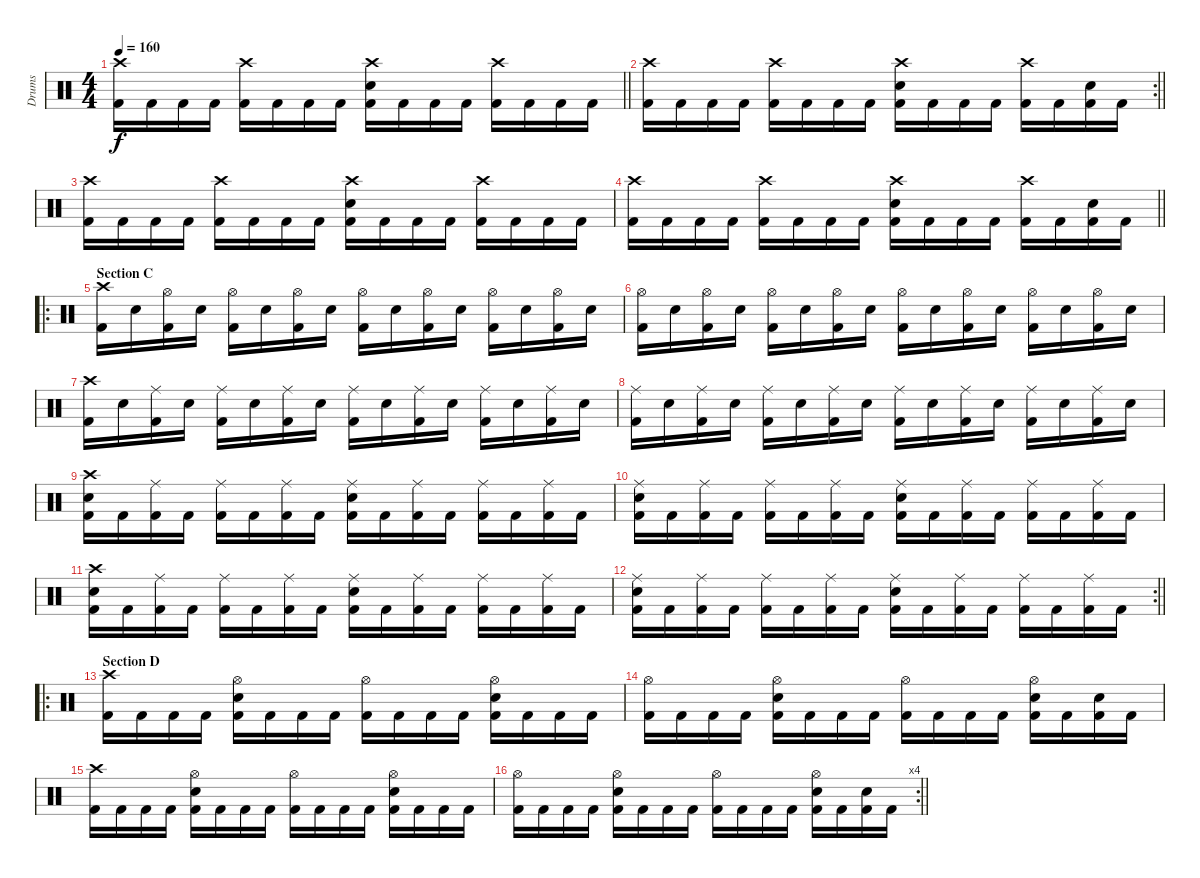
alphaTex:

\track ("Drums" "Drums") {instrument percussion}
\staff {score}
\articulation defaults
\ts (4 4)
\tempo 160
\clef neutral
\barLineRight lightlight
\ks c
("Crash high (hit)" "Kick (hit) 2").16{dy f} "Kick (hit) 2".16 "Kick (hit) 2".16 "Kick (hit) 2".16 ("Crash high (hit)" "Kick (hit) 2").16 "Kick (hit) 2".16 "Kick (hit) 2".16 "Kick (hit) 2".16 ("Crash high (hit)" "Snare (hit) 2" "Kick (hit) 2").16 "Kick (hit) 2".16 "Kick (hit) 2".16 "Kick (hit) 2".16 ("Crash high (hit)" "Kick (hit) 2").16 "Kick (hit) 2".16 "Kick (hit) 2".16 "Kick (hit) 2".16 |
\rc 2
\barLineRight lightlight
("Crash high (hit)" "Kick (hit) 2").16 "Kick (hit) 2".16 "Kick (hit) 2".16 "Kick (hit) 2".16 ("Crash high (hit)" "Kick (hit) 2").16 "Kick (hit) 2".16 "Kick (hit) 2".16 "Kick (hit) 2".16 ("Crash high (hit)" "Snare (hit) 2" "Kick (hit) 2").16 "Kick (hit) 2".16 "Kick (hit) 2".16 "Kick (hit) 2".16 ("Crash high (hit)" "Kick (hit) 2").16 "Kick (hit) 2".16 ("Snare (hit) 2" "Kick (hit) 2").16 "Kick (hit) 2".16 |
("Crash high (hit)" "Kick (hit) 2").16 "Kick (hit) 2".16 "Kick (hit) 2".16 "Kick (hit) 2".16 ("Crash high (hit)" "Kick (hit) 2").16 "Kick (hit) 2".16 "Kick (hit) 2".16 "Kick (hit) 2".16 ("Crash high (hit)" "Snare (hit) 2" "Kick (hit) 2").16 "Kick (hit) 2".16 "Kick (hit) 2".16 "Kick (hit) 2".16 ("Crash high (hit)" "Kick (hit) 2").16 "Kick (hit) 2".16 "Kick (hit) 2".16 "Kick (hit) 2".16 |
\barLineRight lightlight
("Crash high (hit)" "Kick (hit) 2").16 "Kick (hit) 2".16 "Kick (hit) 2".16 "Kick (hit) 2".16 ("Crash high (hit)" "Kick (hit) 2").16 "Kick (hit) 2".16 "Kick (hit) 2".16 "Kick (hit) 2".16 ("Crash high (hit)" "Snare (hit) 2" "Kick (hit) 2").16 "Kick (hit) 2".16 "Kick (hit) 2".16 "Kick (hit) 2".16 ("Crash high (hit)" "Kick (hit) 2").16 "Kick (hit) 2".16 ("Snare (hit) 2" "Kick (hit) 2").16 "Kick (hit) 2".16 |
\ro
\section ("" "Section C")
("Crash high (hit)" "Kick (hit) 2").16 "Snare (hit) 2".16 ("Hi-Hat (open)" "Kick (hit) 2").16 "Snare (hit) 2".16 ("Hi-Hat (open)" "Kick (hit) 2").16 "Snare (hit) 2".16 ("Hi-Hat (open)" "Kick (hit) 2").16 "Snare (hit) 2".16 ("Hi-Hat (open)" "Kick (hit) 2").16 "Snare (hit) 2".16 ("Hi-Hat (open)" "Kick (hit) 2").16 "Snare (hit) 2".16 ("Hi-Hat (open)" "Kick (hit) 2").16 "Snare (hit) 2".16 ("Hi-Hat (open)" "Kick (hit) 2").16 "Snare (hit) 2".16 |
("Hi-Hat (open)" "Kick (hit) 2").16 "Snare (hit) 2".16 ("Hi-Hat (open)" "Kick (hit) 2").16 "Snare (hit) 2".16 ("Hi-Hat (open)" "Kick (hit) 2").16 "Snare (hit) 2".16 ("Hi-Hat (open)" "Kick (hit) 2").16 "Snare (hit) 2".16 ("Hi-Hat (open)" "Kick (hit) 2").16 "Snare (hit) 2".16 ("Hi-Hat (open)" "Kick (hit) 2").16 "Snare (hit) 2".16 ("Hi-Hat (open)" "Kick (hit) 2").16 "Snare (hit) 2".16 ("Hi-Hat (open)" "Kick (hit) 2").16 "Snare (hit) 2".16 |
("Crash high (hit)" "Kick (hit) 2").16 "Snare (hit) 2".16 ("Ride (middle)" "Kick (hit) 2").16 "Snare (hit) 2".16 ("Ride (middle)" "Kick (hit) 2").16 "Snare (hit) 2".16 ("Ride (middle)" "Kick (hit) 2").16 "Snare (hit) 2".16 ("Ride (middle)" "Kick (hit) 2").16 "Snare (hit) 2".16 ("Ride (middle)" "Kick (hit) 2").16 "Snare (hit) 2".16 ("Ride (middle)" "Kick (hit) 2").16 "Snare (hit) 2".16 ("Ride (middle)" "Kick (hit) 2").16 "Snare (hit) 2".16 |
("Ride (middle)" "Kick (hit) 2").16 "Snare (hit) 2".16 ("Ride (middle)" "Kick (hit) 2").16 "Snare (hit) 2".16 ("Ride (middle)" "Kick (hit) 2").16 "Snare (hit) 2".16 ("Ride (middle)" "Kick (hit) 2").16 "Snare (hit) 2".16 ("Ride (middle)" "Kick (hit) 2").16 "Snare (hit) 2".16 ("Ride (middle)" "Kick (hit) 2").16 "Snare (hit) 2".16 ("Ride (middle)" "Kick (hit) 2").16 "Snare (hit) 2".16 ("Ride (middle)" "Kick (hit) 2").16 "Snare (hit) 2".16 |
("Crash high (hit)" "Snare (hit) 2" "Kick (hit) 2").16 "Kick (hit) 2".16 ("Ride (middle)" "Kick (hit) 2").16 "Kick (hit) 2".16 ("Ride (middle)" "Kick (hit) 2").16 "Kick (hit) 2".16 ("Ride (middle)" "Kick (hit) 2").16 "Kick (hit) 2".16 ("Ride (middle)" "Snare (hit) 2" "Kick (hit) 2").16 "Kick (hit) 2".16 ("Ride (middle)" "Kick (hit) 2").16 "Kick (hit) 2".16 ("Ride (middle)" "Kick (hit) 2").16 "Kick (hit) 2".16 ("Ride (middle)" "Kick (hit) 2").16 "Kick (hit) 2".16 |
("Ride (middle)" "Snare (hit) 2" "Kick (hit) 2").16 "Kick (hit) 2".16 ("Ride (middle)" "Kick (hit) 2").16 "Kick (hit) 2".16 ("Ride (middle)" "Kick (hit) 2").16 "Kick (hit) 2".16 ("Ride (middle)" "Kick (hit) 2").16 "Kick (hit) 2".16 ("Ride (middle)" "Snare (hit) 2" "Kick (hit) 2").16 "Kick (hit) 2".16 ("Ride (middle)" "Kick (hit) 2").16 "Kick (hit) 2".16 ("Ride (middle)" "Kick (hit) 2").16 "Kick (hit) 2".16 ("Ride (middle)" "Kick (hit) 2").16 "Kick (hit) 2".16 |
("Crash high (hit)" "Snare (hit) 2" "Kick (hit) 2").16 "Kick (hit) 2".16 ("Ride (middle)" "Kick (hit) 2").16 "Kick (hit) 2".16 ("Ride (middle)" "Kick (hit) 2").16 "Kick (hit) 2".16 ("Ride (middle)" "Kick (hit) 2").16 "Kick (hit) 2".16 ("Ride (middle)" "Snare (hit) 2" "Kick (hit) 2").16 "Kick (hit) 2".16 ("Ride (middle)" "Kick (hit) 2").16 "Kick (hit) 2".16 ("Ride (middle)" "Kick (hit) 2").16 "Kick (hit) 2".16 ("Ride (middle)" "Kick (hit) 2").16 "Kick (hit) 2".16 |
\rc 2
\barLineRight lightlight
("Ride (middle)" "Snare (hit) 2" "Kick (hit) 2").16 "Kick (hit) 2".16 ("Ride (middle)" "Kick (hit) 2").16 "Kick (hit) 2".16 ("Ride (middle)" "Kick (hit) 2").16 "Kick (hit) 2".16 ("Ride (middle)" "Kick (hit) 2").16 "Kick (hit) 2".16 ("Ride (middle)" "Snare (hit) 2" "Kick (hit) 2").16 "Kick (hit) 2".16 ("Ride (middle)" "Kick (hit) 2").16 "Kick (hit) 2".16 ("Ride (middle)" "Kick (hit) 2").16 "Kick (hit) 2".16 ("Ride (middle)" "Kick (hit) 2").16 "Kick (hit) 2".16 |
\ro
\section ("" "Section D")
("Crash high (hit)" "Kick (hit) 2").16 "Kick (hit) 2".16 "Kick (hit) 2".16 "Kick (hit) 2".16 ("Hi-Hat (open)" "Snare (hit) 2" "Kick (hit) 2").16 "Kick (hit) 2".16 "Kick (hit) 2".16 "Kick (hit) 2".16 ("Hi-Hat (open)" "Kick (hit) 2").16 "Kick (hit) 2".16 "Kick (hit) 2".16 "Kick (hit) 2".16 ("Hi-Hat (open)" "Snare (hit) 2" "Kick (hit) 2").16 "Kick (hit) 2".16 "Kick (hit) 2".16 "Kick (hit) 2".16 |
("Hi-Hat (open)" "Kick (hit) 2").16 "Kick (hit) 2".16 "Kick (hit) 2".16 "Kick (hit) 2".16 ("Hi-Hat (open)" "Snare (hit) 2" "Kick (hit) 2").16 "Kick (hit) 2".16 "Kick (hit) 2".16 "Kick (hit) 2".16 ("Hi-Hat (open)" "Kick (hit) 2").16 "Kick (hit) 2".16 "Kick (hit) 2".16 "Kick (hit) 2".16 ("Hi-Hat (open)" "Snare (hit) 2" "Kick (hit) 2").16 "Kick (hit) 2".16 ("Snare (hit) 2" "Kick (hit) 2").16 "Kick (hit) 2".16 |
("Crash high (hit)" "Kick (hit) 2").16 "Kick (hit) 2".16 "Kick (hit) 2".16 "Kick (hit) 2".16 ("Hi-Hat (open)" "Snare (hit) 2" "Kick (hit) 2").16 "Kick (hit) 2".16 "Kick (hit) 2".16 "Kick (hit) 2".16 ("Hi-Hat (open)" "Kick (hit) 2").16 "Kick (hit) 2".16 "Kick (hit) 2".16 "Kick (hit) 2".16 ("Hi-Hat (open)" "Snare (hit) 2" "Kick (hit) 2").16 "Kick (hit) 2".16 "Kick (hit) 2".16 "Kick (hit) 2".16 |
\rc 4
\barLineRight lightlight
("Hi-Hat (open)" "Kick (hit) 2").16 "Kick (hit) 2".16 "Kick (hit) 2".16 "Kick (hit) 2".16 ("Hi-Hat (open)" "Snare (hit) 2" "Kick (hit) 2").16 "Kick (hit) 2".16 "Kick (hit) 2".16 "Kick (hit) 2".16 ("Hi-Hat (open)" "Kick (hit) 2").16 "Kick (hit) 2".16 "Kick (hit) 2".16 "Kick (hit) 2".16 ("Hi-Hat (open)" "Snare (hit) 2" "Kick (hit) 2").16 "Kick (hit) 2".16 ("Snare (hit) 2" "Kick (hit) 2").16 "Kick (hit) 2".16
